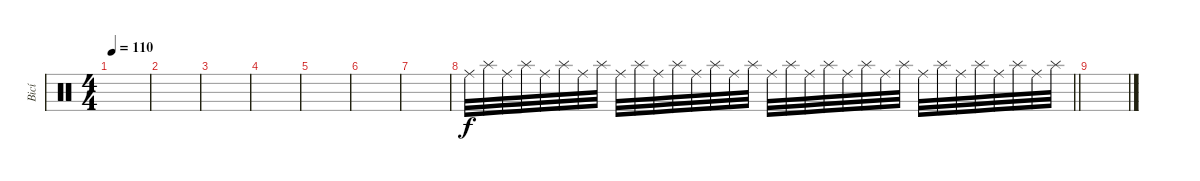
\track ("Bicí" "Bicí") {instrument percussion}
\staff {score}
\articulation defaults
\ts (4 4)
\tempo 110
\clef neutral
\ks c
|
|
|
|
|
|
|
\barLineRight lightlight "Ride (middle)".32{volume 10} "Splash (hit)".32 "Ride (middle)".32 "Splash (hit)".32 "Ride (middle)".32 "Splash (hit)".32 "Ride (middle)".32 "Splash (hit)".32 "Ride (middle)".32 "Splash (hit)".32 "Ride (middle)".32 "Splash (hit)".32 "Ride (middle)".32 "Splash (hit)".32 "Ride (middle)".32 "Splash (hit)".32 "Ride (middle)".32 "Splash (hit)".32 "Ride (middle)".32 "Splash (hit)".32{volume 0} "Ride (middle)".32 "Splash (hit)".32 "Ride (middle)".32 "Splash (hit)".32 "Ride (middle)".32 "Splash (hit)".32 "Ride (middle)".32 "Splash (hit)".32 "Ride (middle)".32 "Splash (hit)".32 "Ride (middle)".32 "Splash (hit)".32
|
\section ("" "")
